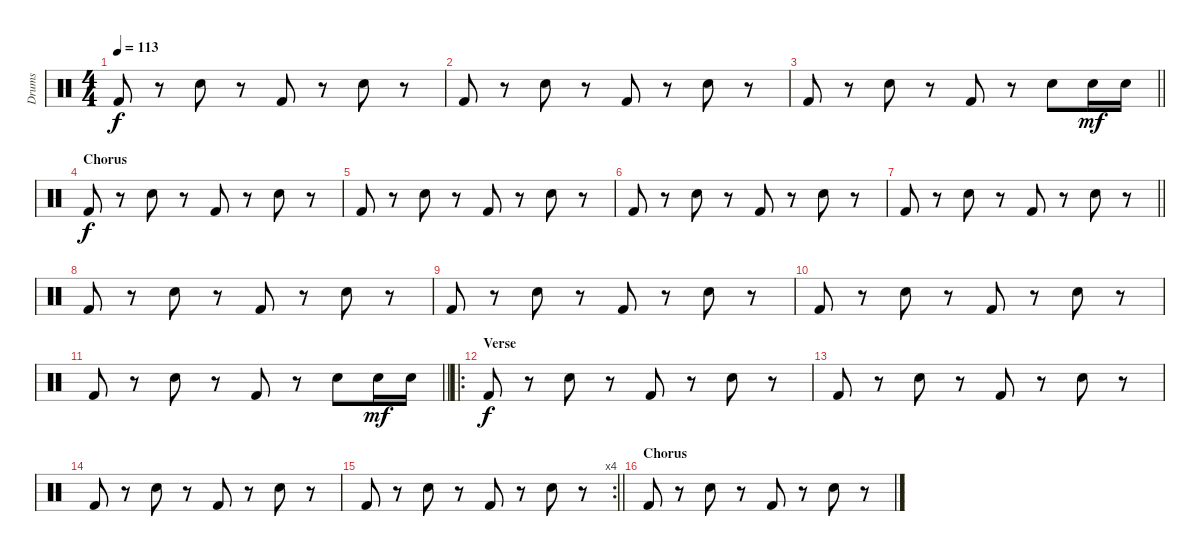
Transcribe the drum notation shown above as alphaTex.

\track ("Drums" "Drums") {instrument percussion}
\staff {score}
\articulation defaults
\ts (4 4)
\tempo 113
\clef neutral
\ks c "Kick (hit) 2".8{dy f}
r.8 "Electric Snare (hit)".8 r.8 "Kick (hit) 2".8 r.8 "Electric Snare (hit)".8 r.8 |
"Kick (hit) 2".8 r.8 "Electric Snare (hit)".8 r.8 "Kick (hit) 2".8 r.8 "Electric Snare (hit)".8 r.8 |
\barLineRight lightlight "Kick (hit) 2".8
r.8 "Electric Snare (hit)".8 r.8 "Kick (hit) 2".8 r.8 "Electric Snare (hit)".8 "Electric Snare (hit)".16{dy mf} "Electric Snare (hit)".16 |
\section ("" "Chorus")
"Kick (hit) 2".8{dy f} r.8 "Electric Snare (hit)".8 r.8 "Kick (hit) 2".8 r.8 "Electric Snare (hit)".8 r.8 |
"Kick (hit) 2".8 r.8 "Electric Snare (hit)".8 r.8 "Kick (hit) 2".8 r.8 "Electric Snare (hit)".8 r.8 |
"Kick (hit) 2".8 r.8 "Electric Snare (hit)".8 r.8 "Kick (hit) 2".8 r.8 "Electric Snare (hit)".8 r.8 |
\barLineRight lightlight "Kick (hit) 2".8
r.8 "Electric Snare (hit)".8 r.8 "Kick (hit) 2".8 r.8 "Electric Snare (hit)".8 r.8 |
"Kick (hit) 2".8 r.8 "Electric Snare (hit)".8 r.8 "Kick (hit) 2".8 r.8 "Electric Snare (hit)".8 r.8 |
"Kick (hit) 2".8 r.8 "Electric Snare (hit)".8 r.8 "Kick (hit) 2".8 r.8 "Electric Snare (hit)".8 r.8 |
"Kick (hit) 2".8 r.8 "Electric Snare (hit)".8 r.8 "Kick (hit) 2".8 r.8 "Electric Snare (hit)".8 r.8 |
\barLineRight lightlight "Kick (hit) 2".8
r.8 "Electric Snare (hit)".8 r.8 "Kick (hit) 2".8 r.8 "Electric Snare (hit)".8 "Electric Snare (hit)".16{dy mf} "Electric Snare (hit)".16 |
\ro
\section ("" "Verse")
"Kick (hit) 2".8{dy f} r.8 "Electric Snare (hit)".8 r.8 "Kick (hit) 2".8 r.8 "Electric Snare (hit)".8 r.8 |
"Kick (hit) 2".8 r.8 "Electric Snare (hit)".8 r.8 "Kick (hit) 2".8 r.8 "Electric Snare (hit)".8 r.8 |
"Kick (hit) 2".8 r.8 "Electric Snare (hit)".8 r.8 "Kick (hit) 2".8 r.8 "Electric Snare (hit)".8 r.8 |
\rc 4
\barLineRight lightlight "Kick (hit) 2".8
r.8 "Electric Snare (hit)".8 r.8 "Kick (hit) 2".8 r.8 "Electric Snare (hit)".8 r.8 |
\section ("" "Chorus")
"Kick (hit) 2".8 r.8 "Electric Snare (hit)".8 r.8 "Kick (hit) 2".8 r.8 "Electric Snare (hit)".8 r.8
